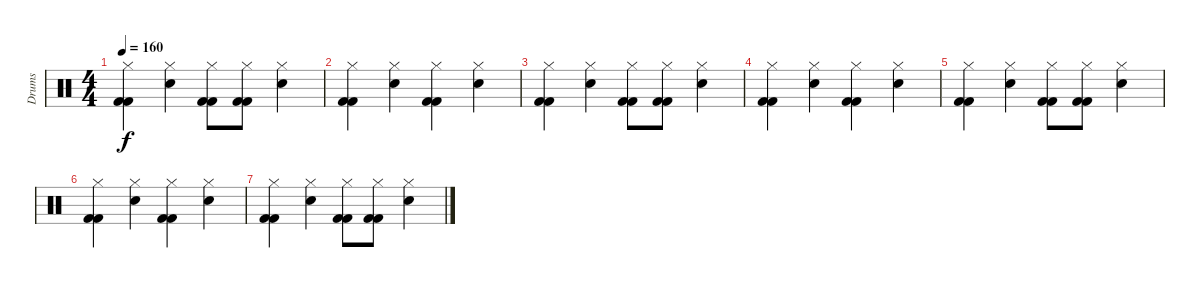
\track ("Drums" "Drums") {instrument percussion}
\staff {score}
\articulation defaults
\ts (4 4)
\tempo 160
\clef neutral
\ks c
("Hi-Hat (closed)" "Kick (hit) 2" "Kick (hit) 2").4{dy f} ("Hi-Hat (closed)" "Snare (hit) 2").4 ("Hi-Hat (closed)" "Kick (hit) 2" "Kick (hit) 2").8 ("Hi-Hat (closed)" "Kick (hit) 2" "Kick (hit) 2").8 ("Hi-Hat (closed)" "Snare (hit) 2").4 |
("Hi-Hat (closed)" "Kick (hit) 2" "Kick (hit) 2").4 ("Hi-Hat (closed)" "Snare (hit) 2").4 ("Hi-Hat (closed)" "Kick (hit) 2" "Kick (hit) 2").4 ("Hi-Hat (closed)" "Snare (hit) 2").4 |
("Hi-Hat (closed)" "Kick (hit) 2" "Kick (hit) 2").4 ("Hi-Hat (closed)" "Snare (hit) 2").4 ("Hi-Hat (closed)" "Kick (hit) 2" "Kick (hit) 2").8 ("Hi-Hat (closed)" "Kick (hit) 2" "Kick (hit) 2").8 ("Hi-Hat (closed)" "Snare (hit) 2").4 |
("Hi-Hat (closed)" "Kick (hit) 2" "Kick (hit) 2").4 ("Hi-Hat (closed)" "Snare (hit) 2").4 ("Hi-Hat (closed)" "Kick (hit) 2" "Kick (hit) 2").4 ("Hi-Hat (closed)" "Snare (hit) 2").4 |
("Hi-Hat (closed)" "Kick (hit) 2" "Kick (hit) 2").4 ("Hi-Hat (closed)" "Snare (hit) 2").4 ("Hi-Hat (closed)" "Kick (hit) 2" "Kick (hit) 2").8 ("Hi-Hat (closed)" "Kick (hit) 2" "Kick (hit) 2").8 ("Hi-Hat (closed)" "Snare (hit) 2").4 |
("Hi-Hat (closed)" "Kick (hit) 2" "Kick (hit) 2").4 ("Hi-Hat (closed)" "Snare (hit) 2").4 ("Hi-Hat (closed)" "Kick (hit) 2" "Kick (hit) 2").4 ("Hi-Hat (closed)" "Snare (hit) 2").4 |
("Hi-Hat (closed)" "Kick (hit) 2" "Kick (hit) 2").4 ("Hi-Hat (closed)" "Snare (hit) 2").4 ("Hi-Hat (closed)" "Kick (hit) 2" "Kick (hit) 2").8 ("Hi-Hat (closed)" "Kick (hit) 2" "Kick (hit) 2").8 ("Hi-Hat (closed)" "Snare (hit) 2").4
